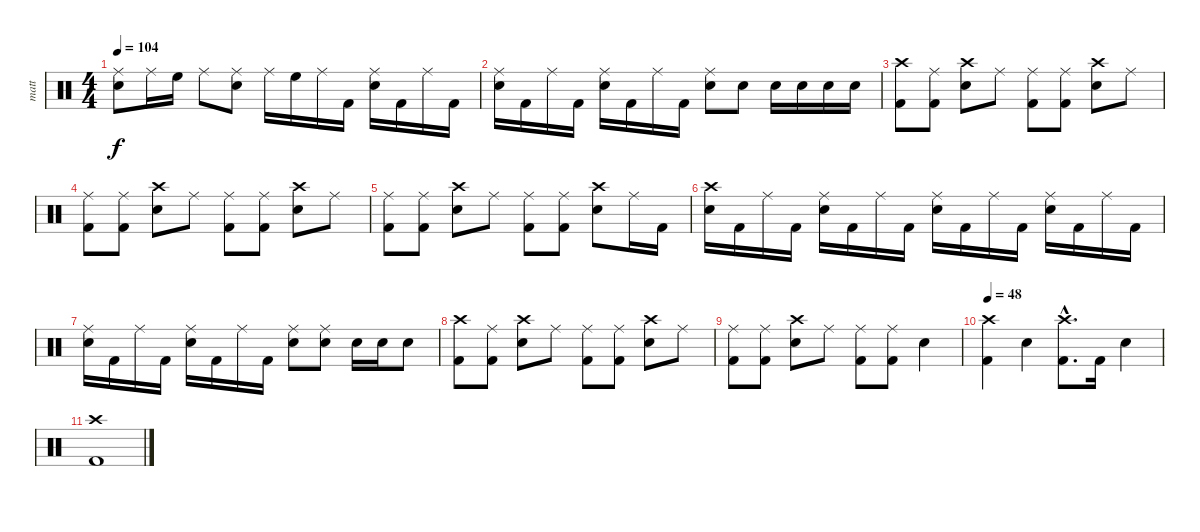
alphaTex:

\track ("matt" "matt") {instrument percussion}
\staff {score}
\articulation defaults
\ts (4 4)
\tempo 104
\clef neutral
\ks c
("Ride (middle)" "Electric Snare (hit)").8{dy f} "Ride (middle)".16 "High Floor Tom (hit)".16 "Ride (middle)".8 ("Ride (middle)" "Electric Snare (hit)").8 "Ride (middle)".16 "High Floor Tom (hit)".16 "Ride (middle)".16 "Kick (hit) 2".16 ("Ride (middle)" "Electric Snare (hit)").16 "Kick (hit) 2".16 "Ride (middle)".16 "Kick (hit) 2".16 |
("Ride (middle)" "Electric Snare (hit)").16 "Kick (hit) 2".16 "Ride (middle)".16 "Kick (hit) 2".16 ("Ride (middle)" "Electric Snare (hit)").16 "Kick (hit) 2".16 "Ride (middle)".16 "Kick (hit) 2".16 ("Ride (middle)" "Electric Snare (hit)").8 "Electric Snare (hit)".8 "Electric Snare (hit)".16 "Electric Snare (hit)".16 "Electric Snare (hit)".16 "Electric Snare (hit)".16 |
("Crash high (hit)" "Kick (hit) 2").8 ("Ride (middle)" "Kick (hit) 2").8 ("Crash high (hit)" "Electric Snare (hit)").8 "Ride (middle)".8 ("Ride (middle)" "Kick (hit) 2").8 ("Ride (middle)" "Kick (hit) 2").8 ("Crash high (hit)" "Electric Snare (hit)").8 "Ride (middle)".8 |
("Ride (middle)" "Kick (hit) 2").8 ("Ride (middle)" "Kick (hit) 2").8 ("Crash high (hit)" "Electric Snare (hit)").8 "Ride (middle)".8 ("Ride (middle)" "Kick (hit) 2").8 ("Ride (middle)" "Kick (hit) 2").8 ("Crash high (hit)" "Electric Snare (hit)").8 "Ride (middle)".8 |
("Ride (middle)" "Kick (hit) 2").8 ("Ride (middle)" "Kick (hit) 2").8 ("Crash high (hit)" "Electric Snare (hit)").8 "Ride (middle)".8 ("Ride (middle)" "Kick (hit) 2").8 ("Ride (middle)" "Kick (hit) 2").8 ("Crash high (hit)" "Electric Snare (hit)").8 "Ride (middle)".16 "Kick (hit) 2".16 |
("Crash high (hit)" "Electric Snare (hit)").16 "Kick (hit) 2".16 "Ride (middle)".16 "Kick (hit) 2".16 ("Ride (middle)" "Electric Snare (hit)").16 "Kick (hit) 2".16 "Ride (middle)".16 "Kick (hit) 2".16 ("Ride (middle)" "Electric Snare (hit)").16 "Kick (hit) 2".16 "Ride (middle)".16 "Kick (hit) 2".16 ("Ride (middle)" "Electric Snare (hit)").16 "Kick (hit) 2".16 "Ride (middle)".16 "Kick (hit) 2".16 |
("Ride (middle)" "Electric Snare (hit)").16 "Kick (hit) 2".16 "Ride (middle)".16 "Kick (hit) 2".16 ("Ride (middle)" "Electric Snare (hit)").16 "Kick (hit) 2".16 "Ride (middle)".16 "Kick (hit) 2".16 ("Ride (middle)" "Electric Snare (hit)").8 ("Ride (middle)" "Electric Snare (hit)").8 "Electric Snare (hit)".16 "Electric Snare (hit)".16 "Electric Snare (hit)".8 |
("Crash high (hit)" "Kick (hit) 2").8 ("Ride (middle)" "Kick (hit) 2").8 ("Crash high (hit)" "Electric Snare (hit)").8 "Ride (middle)".8 ("Ride (middle)" "Kick (hit) 2").8 ("Ride (middle)" "Kick (hit) 2").8 ("Crash high (hit)" "Electric Snare (hit)").8 "Ride (middle)".8 |
("Ride (middle)" "Kick (hit) 2").8 ("Ride (middle)" "Kick (hit) 2").8 ("Crash high (hit)" "Electric Snare (hit)").8 "Ride (middle)".8 ("Ride (middle)" "Kick (hit) 2").8 ("Ride (middle)" "Kick (hit) 2").8 "Electric Snare (hit)".4 |
\tempo 48
("Crash high (hit)" "Kick (hit) 2").4 "Electric Snare (hit)".4 ("Crash high (hit)"{hac} "Kick (hit) 2"{hac}).8{d} "Kick (hit) 2".16 "Electric Snare (hit)".4 |
("Crash high (hit)" "Kick (hit) 2").1
